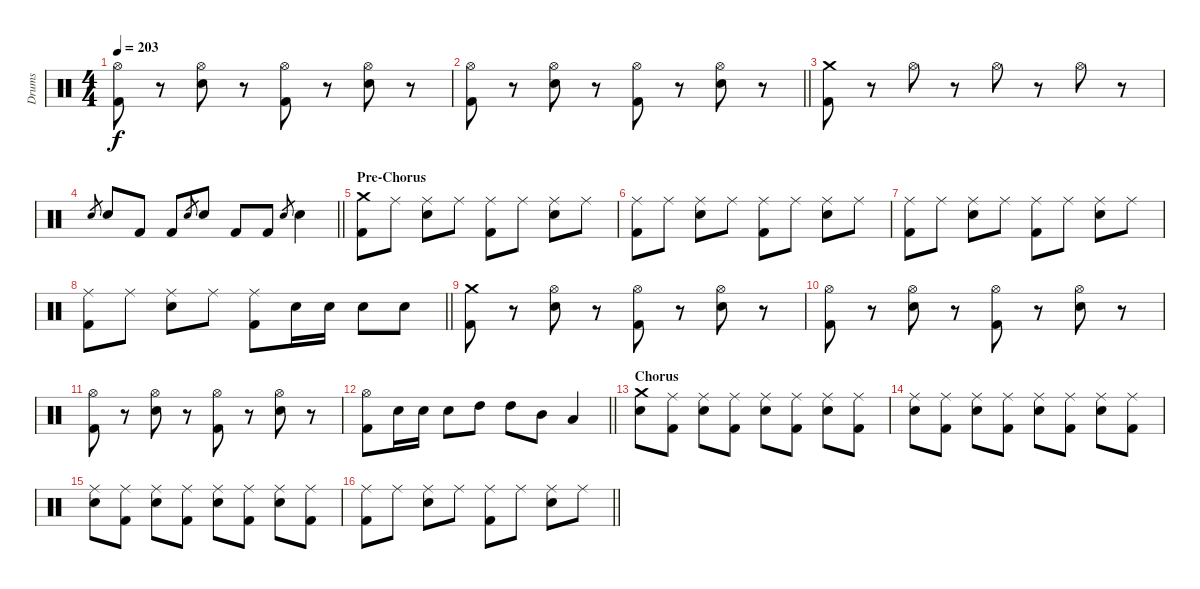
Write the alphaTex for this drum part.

\track ("Drums" "Drums") {instrument percussion}
\staff {score}
\articulation defaults
\ts (4 4)
\tempo 203
\clef neutral
\ks c
("Hi-Hat (open)" "Kick (hit) 2").8{dy f} r.8 ("Hi-Hat (open)" "Electric Snare (hit)").8 r.8 ("Hi-Hat (open)" "Kick (hit) 2").8 r.8 ("Hi-Hat (open)" "Electric Snare (hit)").8 r.8 |
\barLineRight lightlight
("Hi-Hat (open)" "Kick (hit) 2").8 r.8 ("Hi-Hat (open)" "Electric Snare (hit)").8 r.8 ("Hi-Hat (open)" "Kick (hit) 2").8 r.8 ("Hi-Hat (open)" "Electric Snare (hit)").8 r.8 |
("Crash medium (hit)" "Kick (hit) 2").8 r.8 "Hi-Hat (open)".8 r.8 "Hi-Hat (open)".8 r.8 "Hi-Hat (open)".8 r.8 |
\barLineRight lightlight "Electric Snare (hit)".8{gr} "Electric Snare (hit)".8 "Kick (hit) 2".8 "Kick (hit) 2".8 "Electric Snare (hit)".8{gr} "Electric Snare (hit)".8 "Kick (hit) 2".8 "Kick (hit) 2".8 "Electric Snare (hit)".8{gr} "Electric Snare (hit)".4
|
\section ("" "Pre-Chorus")
("Crash medium (hit)" "Kick (hit) 2").8 "Ride (middle)".8 ("Ride (middle)" "Electric Snare (hit)").8 "Ride (middle)".8 ("Ride (middle)" "Kick (hit) 2").8 "Ride (middle)".8 ("Ride (middle)" "Electric Snare (hit)").8 "Ride (middle)".8 |
("Ride (middle)" "Kick (hit) 2").8 "Ride (middle)".8 ("Ride (middle)" "Electric Snare (hit)").8 "Ride (middle)".8 ("Ride (middle)" "Kick (hit) 2").8 "Ride (middle)".8 ("Ride (middle)" "Electric Snare (hit)").8 "Ride (middle)".8 |
("Ride (middle)" "Kick (hit) 2").8 "Ride (middle)".8 ("Ride (middle)" "Electric Snare (hit)").8 "Ride (middle)".8 ("Ride (middle)" "Kick (hit) 2").8 "Ride (middle)".8 ("Ride (middle)" "Electric Snare (hit)").8 "Ride (middle)".8 |
\barLineRight lightlight
("Ride (middle)" "Kick (hit) 2").8 "Ride (middle)".8 ("Ride (middle)" "Electric Snare (hit)").8 "Ride (middle)".8 ("Ride (middle)" "Kick (hit) 2").8 "Electric Snare (hit)".16 "Electric Snare (hit)".16 "Electric Snare (hit)".8 "Electric Snare (hit)".8 |
("Crash medium (hit)" "Kick (hit) 2").8 r.8 ("Hi-Hat (open)" "Electric Snare (hit)").8 r.8 ("Hi-Hat (open)" "Kick (hit) 2").8 r.8 ("Hi-Hat (open)" "Electric Snare (hit)").8 r.8 |
("Hi-Hat (open)" "Kick (hit) 2").8 r.8 ("Hi-Hat (open)" "Electric Snare (hit)").8 r.8 ("Hi-Hat (open)" "Kick (hit) 2").8 r.8 ("Hi-Hat (open)" "Electric Snare (hit)").8 r.8 |
("Hi-Hat (open)" "Kick (hit) 2").8 r.8 ("Hi-Hat (open)" "Electric Snare (hit)").8 r.8 ("Hi-Hat (open)" "Kick (hit) 2").8 r.8 ("Hi-Hat (open)" "Electric Snare (hit)").8 r.8 |
\barLineRight lightlight
("Hi-Hat (open)" "Kick (hit) 2").8 "Electric Snare (hit)".16 "Electric Snare (hit)".16 "Electric Snare (hit)".8 "High Tom (hit)".8 "High Tom (hit)".8 "Mid Tom (hit)".8 "Low Tom (hit)".4 |
\section ("" "Chorus")
("Crash medium (hit)" "Electric Snare (hit)").8 ("Ride (middle)" "Kick (hit) 2").8 ("Ride (middle)" "Electric Snare (hit)").8 ("Ride (middle)" "Kick (hit) 2").8 ("Ride (middle)" "Electric Snare (hit)").8 ("Ride (middle)" "Kick (hit) 2").8 ("Ride (middle)" "Electric Snare (hit)").8 ("Ride (middle)" "Kick (hit) 2").8 |
("Ride (middle)" "Electric Snare (hit)").8 ("Ride (middle)" "Kick (hit) 2").8 ("Ride (middle)" "Electric Snare (hit)").8 ("Ride (middle)" "Kick (hit) 2").8 ("Ride (middle)" "Electric Snare (hit)").8 ("Ride (middle)" "Kick (hit) 2").8 ("Ride (middle)" "Electric Snare (hit)").8 ("Ride (middle)" "Kick (hit) 2").8 |
("Ride (middle)" "Electric Snare (hit)").8 ("Ride (middle)" "Kick (hit) 2").8 ("Ride (middle)" "Electric Snare (hit)").8 ("Ride (middle)" "Kick (hit) 2").8 ("Ride (middle)" "Electric Snare (hit)").8 ("Ride (middle)" "Kick (hit) 2").8 ("Ride (middle)" "Electric Snare (hit)").8 ("Ride (middle)" "Kick (hit) 2").8 |
\barLineRight lightlight
("Ride (middle)" "Kick (hit) 2").8 "Ride (middle)".8 ("Ride (middle)" "Electric Snare (hit)").8 "Ride (middle)".8 ("Ride (middle)" "Kick (hit) 2").8 "Ride (middle)".8 ("Ride (middle)" "Electric Snare (hit)").8 "Ride (middle)".8
